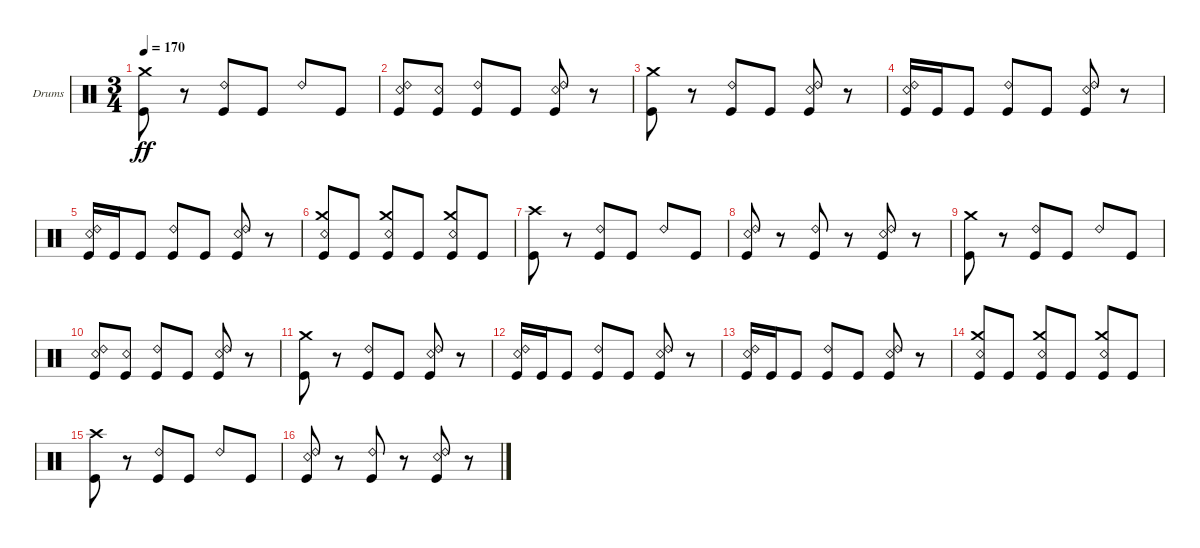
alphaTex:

\bracketExtendMode groupsimilarinstruments
\firstSystemTrackNameOrientation horizontal
\otherSystemsTrackNameOrientation horizontal
\track ("Kaleb - Drums" "Drums") {instrument percussion}
\staff {score}
\articulation defaults
\ts (3 4)
\tempo 170
\clef neutral
\ks c
("Kick (hit)" "Crash medium (hit)").8{dy ff} r.8 ("Kick (hit)" "Ride (bell) 2").8 "Kick (hit)".8 "Ride (bell) 2".8 "Kick (hit)".8 |
("Kick (hit)" "Ride (bell) 2" "Snare (rim shot)").8 ("Kick (hit)" "Snare (rim shot)").8 ("Kick (hit)" "Ride (bell) 2").8 "Kick (hit)".8 ("Kick (hit)" "Ride (bell) 2" "Snare (rim shot)").8 r.8 |
("Kick (hit)" "Crash medium (hit)").8 r.8 ("Kick (hit)" "Ride (bell) 2").8 "Kick (hit)".8 ("Kick (hit)" "Snare (rim shot)" "Ride (bell) 2").8 r.8 |
("Kick (hit)" "Snare (rim shot)" "Ride (bell) 2").16 "Kick (hit)".16 "Kick (hit)".8 ("Kick (hit)" "Ride (bell) 2").8 "Kick (hit)".8 ("Kick (hit)" "Snare (rim shot)" "Ride (bell) 2").8 r.8 |
("Kick (hit)" "Snare (rim shot)" "Ride (bell) 2").16 "Kick (hit)".16 "Kick (hit)".8 ("Kick (hit)" "Ride (bell) 2").8 "Kick (hit)".8 ("Kick (hit)" "Snare (rim shot)" "Ride (bell) 2").8 r.8 |
("Kick (hit)" "Crash medium (hit)" "Snare (rim shot)").8 "Kick (hit)".8 ("Kick (hit)" "Crash medium (hit)" "Snare (rim shot)").8 "Kick (hit)".8 ("Kick (hit)" "Crash medium (hit)" "Snare (rim shot)").8 "Kick (hit)".8 |
("Kick (hit)" "Crash high (hit)").8 r.8 ("Kick (hit)" "Ride (bell) 2").8 "Kick (hit)".8 "Ride (bell) 2".8 "Kick (hit)".8 |
("Kick (hit)" "Ride (bell) 2" "Snare (rim shot)").8 r.8 ("Kick (hit)" "Ride (bell) 2").8 r.8 ("Kick (hit)" "Ride (bell) 2" "Snare (rim shot)").8 r.8 |
("Kick (hit)" "Crash medium (hit)").8 r.8 ("Kick (hit)" "Ride (bell) 2").8 "Kick (hit)".8 "Ride (bell) 2".8 "Kick (hit)".8 |
("Kick (hit)" "Ride (bell) 2" "Snare (rim shot)").8 ("Kick (hit)" "Snare (rim shot)").8 ("Kick (hit)" "Ride (bell) 2").8 "Kick (hit)".8 ("Kick (hit)" "Ride (bell) 2" "Snare (rim shot)").8 r.8 |
("Kick (hit)" "Crash medium (hit)").8 r.8 ("Kick (hit)" "Ride (bell) 2").8 "Kick (hit)".8 ("Kick (hit)" "Snare (rim shot)" "Ride (bell) 2").8 r.8 |
("Kick (hit)" "Snare (rim shot)" "Ride (bell) 2").16 "Kick (hit)".16 "Kick (hit)".8 ("Kick (hit)" "Ride (bell) 2").8 "Kick (hit)".8 ("Kick (hit)" "Snare (rim shot)" "Ride (bell) 2").8 r.8 |
("Kick (hit)" "Snare (rim shot)" "Ride (bell) 2").16 "Kick (hit)".16 "Kick (hit)".8 ("Kick (hit)" "Ride (bell) 2").8 "Kick (hit)".8 ("Kick (hit)" "Snare (rim shot)" "Ride (bell) 2").8 r.8 |
("Kick (hit)" "Crash medium (hit)" "Snare (rim shot)").8 "Kick (hit)".8 ("Kick (hit)" "Crash medium (hit)" "Snare (rim shot)").8 "Kick (hit)".8 ("Kick (hit)" "Crash medium (hit)" "Snare (rim shot)").8 "Kick (hit)".8 |
("Kick (hit)" "Crash high (hit)").8 r.8 ("Kick (hit)" "Ride (bell) 2").8 "Kick (hit)".8 "Ride (bell) 2".8 "Kick (hit)".8 |
("Kick (hit)" "Ride (bell) 2" "Snare (rim shot)").8 r.8 ("Kick (hit)" "Ride (bell) 2").8 r.8 ("Kick (hit)" "Ride (bell) 2" "Snare (rim shot)").8 r.8
